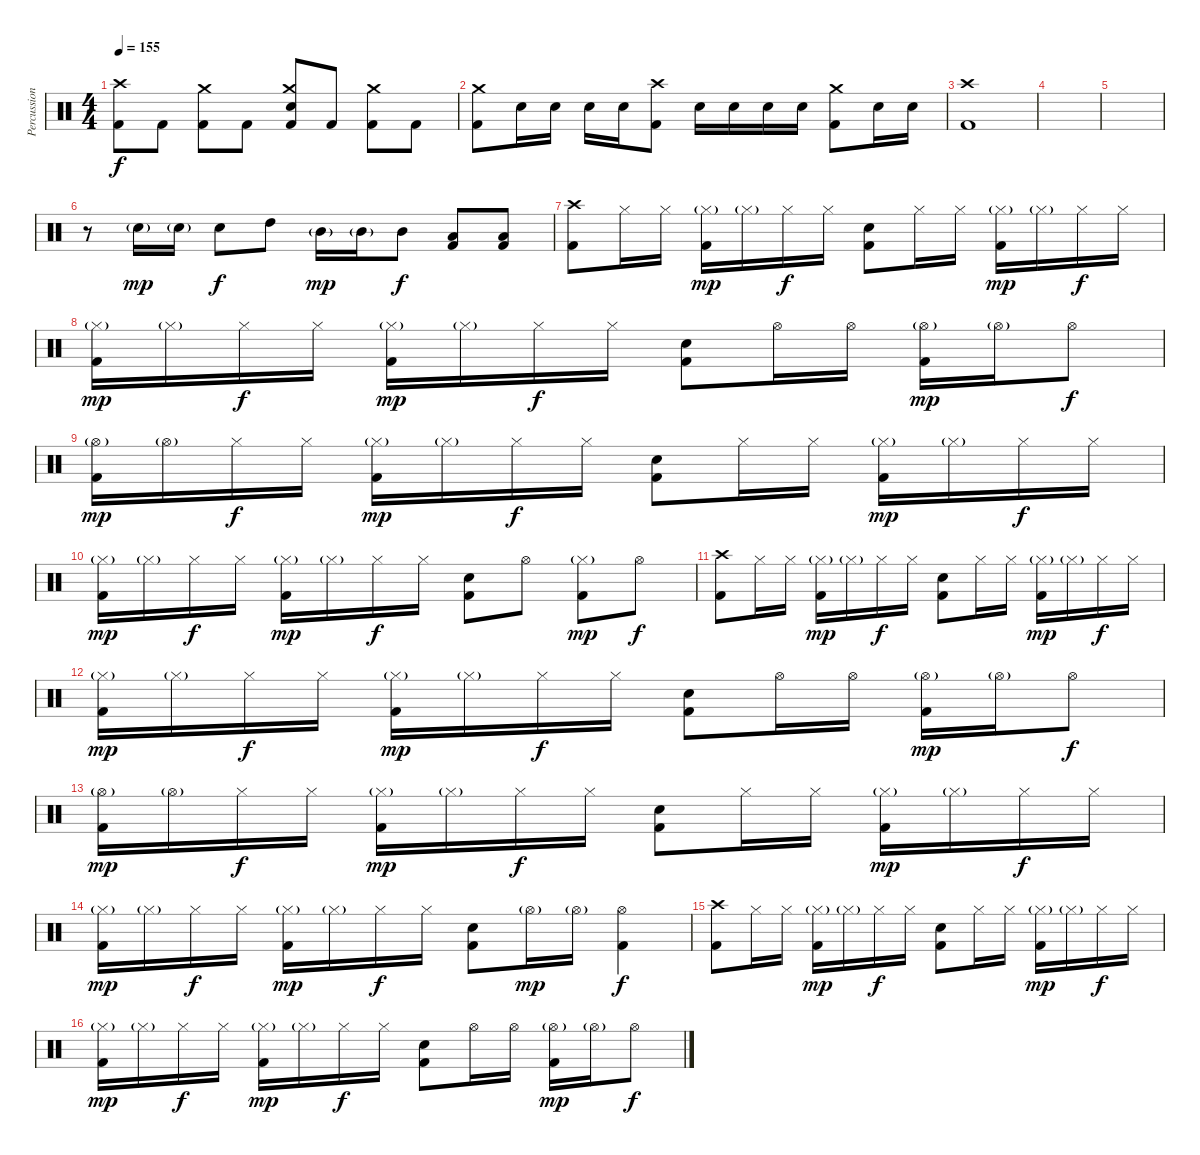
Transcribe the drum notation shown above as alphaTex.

\track ("Percussion" "Percussion") {instrument percussion}
\staff {score}
\articulation defaults
\ts (4 4)
\tempo 155
\clef neutral
\ks c
("Crash high (hit)" "Kick (hit) 2").8{dy f} "Kick (hit) 2".8 ("Crash medium (hit)" "Kick (hit) 2").8 "Kick (hit) 2".8 ("Crash medium (hit)" "Electric Snare (hit)" "Kick (hit) 2").8 "Kick (hit) 2".8 ("Crash medium (hit)" "Kick (hit) 2").8 "Kick (hit) 2".8 |
("Crash medium (hit)" "Kick (hit) 2").8 "Electric Snare (hit)".16 "Electric Snare (hit)".16 "Electric Snare (hit)".16 "Electric Snare (hit)".16 ("Crash high (hit)" "Kick (hit) 2").8 "Electric Snare (hit)".16 "Electric Snare (hit)".16 "Electric Snare (hit)".16 "Electric Snare (hit)".16 ("Crash medium (hit)" "Kick (hit) 2").8 "Electric Snare (hit)".16 "Electric Snare (hit)".16 |
("Crash high (hit)" "Kick (hit) 2").1 |
|
|
r.8 "Electric Snare (hit)"{g}.16{dy mp} "Electric Snare (hit)"{g}.16 "Electric Snare (hit)".8{dy f} "High Tom (hit)".8 "Mid Tom (hit)"{g}.16{dy mp} "Mid Tom (hit)"{g}.16 "Mid Tom (hit)".8{dy f} ("Low Tom (hit)" "Kick (hit) 2").8 ("Low Tom (hit)" "Kick (hit) 2").8 |
("Crash high (hit)" "Kick (hit) 2").8 "Hi-Hat (closed)".16 "Hi-Hat (closed)".16 ("Hi-Hat (closed)"{g} "Kick (hit) 2").16{dy mp} "Hi-Hat (closed)"{g}.16 "Hi-Hat (closed)".16{dy f} "Hi-Hat (closed)".16 ("Electric Snare (hit)" "Kick (hit) 2").8 "Hi-Hat (closed)".16 "Hi-Hat (closed)".16 ("Hi-Hat (closed)"{g} "Kick (hit) 2").16{dy mp} "Hi-Hat (closed)"{g}.16 "Hi-Hat (closed)".16{dy f} "Hi-Hat (closed)".16 |
("Hi-Hat (closed)"{g} "Kick (hit) 2").16{dy mp} "Hi-Hat (closed)"{g}.16 "Hi-Hat (closed)".16{dy f} "Hi-Hat (closed)".16 ("Hi-Hat (closed)"{g} "Kick (hit) 2").16{dy mp} "Hi-Hat (closed)"{g}.16 "Hi-Hat (closed)".16{dy f} "Hi-Hat (closed)".16 ("Electric Snare (hit)" "Kick (hit) 2").8 "Hi-Hat (open)".16 "Hi-Hat (open)".16 ("Hi-Hat (open)"{g} "Kick (hit) 2").16{dy mp} "Hi-Hat (open)"{g}.16 "Hi-Hat (open)".8{dy f} |
("Hi-Hat (open)"{g} "Kick (hit) 2").16{dy mp} "Hi-Hat (open)"{g}.16 "Hi-Hat (closed)".16{dy f} "Hi-Hat (closed)".16 ("Hi-Hat (closed)"{g} "Kick (hit) 2").16{dy mp} "Hi-Hat (closed)"{g}.16 "Hi-Hat (closed)".16{dy f} "Hi-Hat (closed)".16 ("Electric Snare (hit)" "Kick (hit) 2").8 "Hi-Hat (closed)".16 "Hi-Hat (closed)".16 ("Hi-Hat (closed)"{g} "Kick (hit) 2").16{dy mp} "Hi-Hat (closed)"{g}.16 "Hi-Hat (closed)".16{dy f} "Hi-Hat (closed)".16 |
("Hi-Hat (closed)"{g} "Kick (hit) 2").16{dy mp} "Hi-Hat (closed)"{g}.16 "Hi-Hat (closed)".16{dy f} "Hi-Hat (closed)".16 ("Hi-Hat (closed)"{g} "Kick (hit) 2").16{dy mp} "Hi-Hat (closed)"{g}.16 "Hi-Hat (closed)".16{dy f} "Hi-Hat (closed)".16 ("Electric Snare (hit)" "Kick (hit) 2").8 "Hi-Hat (open)".8 ("Hi-Hat (closed)"{g} "Kick (hit) 2").8{dy mp} "Hi-Hat (open)".8{dy f} |
("Crash high (hit)" "Kick (hit) 2").8 "Hi-Hat (closed)".16 "Hi-Hat (closed)".16 ("Hi-Hat (closed)"{g} "Kick (hit) 2").16{dy mp} "Hi-Hat (closed)"{g}.16 "Hi-Hat (closed)".16{dy f} "Hi-Hat (closed)".16 ("Electric Snare (hit)" "Kick (hit) 2").8 "Hi-Hat (closed)".16 "Hi-Hat (closed)".16 ("Hi-Hat (closed)"{g} "Kick (hit) 2").16{dy mp} "Hi-Hat (closed)"{g}.16 "Hi-Hat (closed)".16{dy f} "Hi-Hat (closed)".16 |
("Hi-Hat (closed)"{g} "Kick (hit) 2").16{dy mp} "Hi-Hat (closed)"{g}.16 "Hi-Hat (closed)".16{dy f} "Hi-Hat (closed)".16 ("Hi-Hat (closed)"{g} "Kick (hit) 2").16{dy mp} "Hi-Hat (closed)"{g}.16 "Hi-Hat (closed)".16{dy f} "Hi-Hat (closed)".16 ("Electric Snare (hit)" "Kick (hit) 2").8 "Hi-Hat (open)".16 "Hi-Hat (open)".16 ("Hi-Hat (open)"{g} "Kick (hit) 2").16{dy mp} "Hi-Hat (open)"{g}.16 "Hi-Hat (open)".8{dy f} |
("Hi-Hat (open)"{g} "Kick (hit) 2").16{dy mp} "Hi-Hat (open)"{g}.16 "Hi-Hat (closed)".16{dy f} "Hi-Hat (closed)".16 ("Hi-Hat (closed)"{g} "Kick (hit) 2").16{dy mp} "Hi-Hat (closed)"{g}.16 "Hi-Hat (closed)".16{dy f} "Hi-Hat (closed)".16 ("Electric Snare (hit)" "Kick (hit) 2").8 "Hi-Hat (closed)".16 "Hi-Hat (closed)".16 ("Hi-Hat (closed)"{g} "Kick (hit) 2").16{dy mp} "Hi-Hat (closed)"{g}.16 "Hi-Hat (closed)".16{dy f} "Hi-Hat (closed)".16 |
("Hi-Hat (closed)"{g} "Kick (hit) 2").16{dy mp} "Hi-Hat (closed)"{g}.16 "Hi-Hat (closed)".16{dy f} "Hi-Hat (closed)".16 ("Hi-Hat (closed)"{g} "Kick (hit) 2").16{dy mp} "Hi-Hat (closed)"{g}.16 "Hi-Hat (closed)".16{dy f} "Hi-Hat (closed)".16 ("Electric Snare (hit)" "Kick (hit) 2").8 "Hi-Hat (open)"{g}.16{dy mp} "Hi-Hat (open)"{g}.16 ("Hi-Hat (open)" "Kick (hit) 2").4{dy f} |
("Crash high (hit)" "Kick (hit) 2").8 "Hi-Hat (closed)".16 "Hi-Hat (closed)".16 ("Hi-Hat (closed)"{g} "Kick (hit) 2").16{dy mp} "Hi-Hat (closed)"{g}.16 "Hi-Hat (closed)".16{dy f} "Hi-Hat (closed)".16 ("Electric Snare (hit)" "Kick (hit) 2").8 "Hi-Hat (closed)".16 "Hi-Hat (closed)".16 ("Hi-Hat (closed)"{g} "Kick (hit) 2").16{dy mp} "Hi-Hat (closed)"{g}.16 "Hi-Hat (closed)".16{dy f} "Hi-Hat (closed)".16 |
("Hi-Hat (closed)"{g} "Kick (hit) 2").16{dy mp} "Hi-Hat (closed)"{g}.16 "Hi-Hat (closed)".16{dy f} "Hi-Hat (closed)".16 ("Hi-Hat (closed)"{g} "Kick (hit) 2").16{dy mp} "Hi-Hat (closed)"{g}.16 "Hi-Hat (closed)".16{dy f} "Hi-Hat (closed)".16 ("Electric Snare (hit)" "Kick (hit) 2").8 "Hi-Hat (open)".16 "Hi-Hat (open)".16 ("Hi-Hat (open)"{g} "Kick (hit) 2").16{dy mp} "Hi-Hat (open)"{g}.16 "Hi-Hat (open)".8{dy f}
